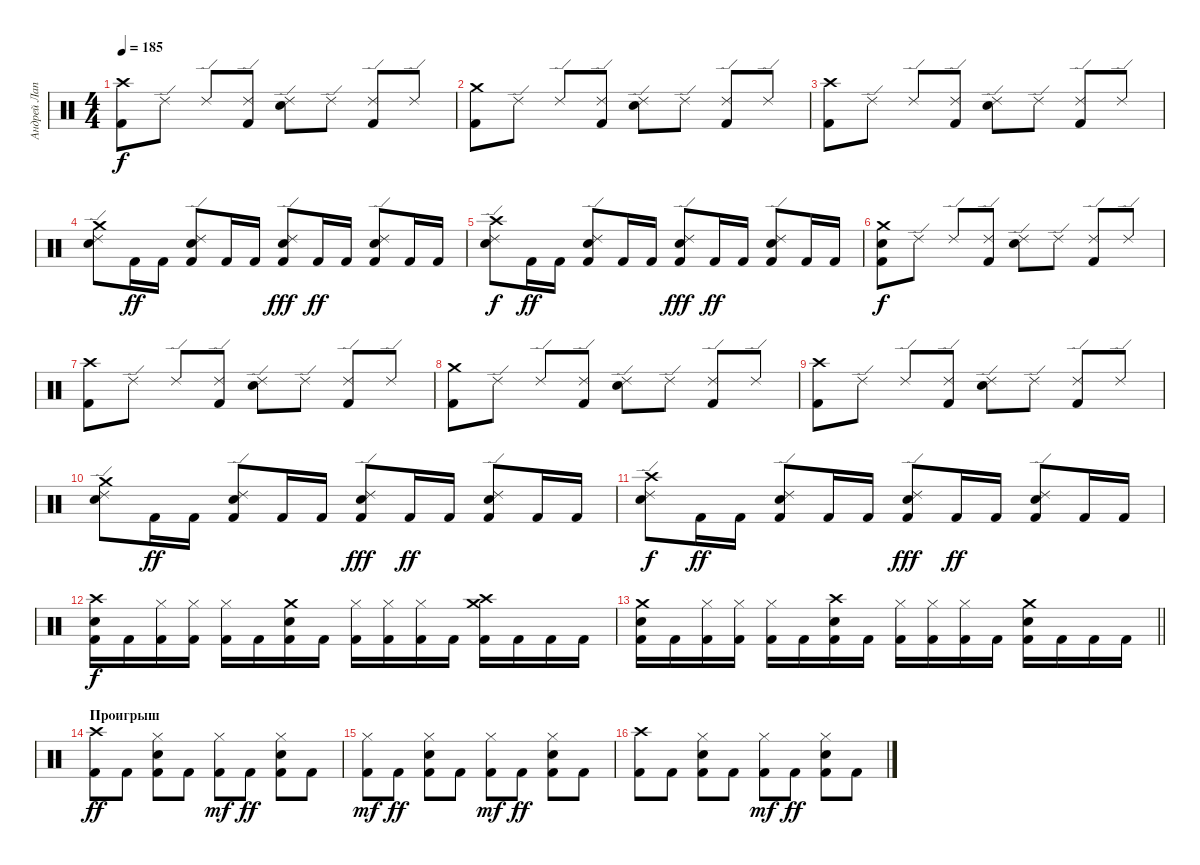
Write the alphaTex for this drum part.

\track ("Андрей Лаптев" "Андрей Лап") {instrument percussion}
\staff {score}
\articulation defaults
\ts (4 4)
\tempo 185
\clef neutral
\ks c
("Kick (hit) 2" "Crash high (hit)").8{dy f} "Ride (edge) 2".8 "Ride (edge) 2".8 ("Ride (edge) 2" "Kick (hit) 2").8 ("Ride (edge) 2" "Electric Snare (hit)").8 "Ride (edge) 2".8 ("Ride (edge) 2" "Kick (hit) 2").8 "Ride (edge) 2".8 |
("Crash medium (hit)" "Kick (hit) 2").8 "Ride (edge) 2".8 "Ride (edge) 2".8 ("Ride (edge) 2" "Kick (hit) 2").8 ("Ride (edge) 2" "Electric Snare (hit)").8 "Ride (edge) 2".8 ("Ride (edge) 2" "Kick (hit) 2").8 "Ride (edge) 2".8 |
("Kick (hit) 2" "Crash high (hit)").8 "Ride (edge) 2".8 "Ride (edge) 2".8 ("Ride (edge) 2" "Kick (hit) 2").8 ("Ride (edge) 2" "Electric Snare (hit)").8 "Ride (edge) 2".8 ("Ride (edge) 2" "Kick (hit) 2").8 "Ride (edge) 2".8 |
("Ride (edge) 2" "Crash medium (hit)" "Electric Snare (hit)").8 "Kick (hit) 2".16{dy ff} "Kick (hit) 2".16 ("Kick (hit) 2" "Electric Snare (hit)" "Ride (edge) 2").8 "Kick (hit) 2".16 "Kick (hit) 2".16 ("Kick (hit) 2" "Ride (edge) 2" "Electric Snare (hit)").8{dy fff} "Kick (hit) 2".16{dy ff} "Kick (hit) 2".16 ("Ride (edge) 2" "Electric Snare (hit)" "Kick (hit) 2").8 "Kick (hit) 2".16 "Kick (hit) 2".16 |
("Ride (edge) 2" "Crash high (hit)" "Electric Snare (hit)").8{dy f} "Kick (hit) 2".16{dy ff} "Kick (hit) 2".16 ("Kick (hit) 2" "Electric Snare (hit)" "Ride (edge) 2").8 "Kick (hit) 2".16 "Kick (hit) 2".16 ("Kick (hit) 2" "Ride (edge) 2" "Electric Snare (hit)").8{dy fff} "Kick (hit) 2".16{dy ff} "Kick (hit) 2".16 ("Ride (edge) 2" "Electric Snare (hit)" "Kick (hit) 2").8 "Kick (hit) 2".16 "Kick (hit) 2".16 |
("Electric Snare (hit)" "Crash medium (hit)" "Kick (hit) 2").8{dy f} "Ride (edge) 2".8 "Ride (edge) 2".8 ("Ride (edge) 2" "Kick (hit) 2").8 ("Ride (edge) 2" "Electric Snare (hit)").8 "Ride (edge) 2".8 ("Ride (edge) 2" "Kick (hit) 2").8 "Ride (edge) 2".8 |
("Kick (hit) 2" "Crash high (hit)").8 "Ride (edge) 2".8 "Ride (edge) 2".8 ("Ride (edge) 2" "Kick (hit) 2").8 ("Ride (edge) 2" "Electric Snare (hit)").8 "Ride (edge) 2".8 ("Ride (edge) 2" "Kick (hit) 2").8 "Ride (edge) 2".8 |
("Crash medium (hit)" "Kick (hit) 2").8 "Ride (edge) 2".8 "Ride (edge) 2".8 ("Ride (edge) 2" "Kick (hit) 2").8 ("Ride (edge) 2" "Electric Snare (hit)").8 "Ride (edge) 2".8 ("Ride (edge) 2" "Kick (hit) 2").8 "Ride (edge) 2".8 |
("Kick (hit) 2" "Crash high (hit)").8 "Ride (edge) 2".8 "Ride (edge) 2".8 ("Ride (edge) 2" "Kick (hit) 2").8 ("Ride (edge) 2" "Electric Snare (hit)").8 "Ride (edge) 2".8 ("Ride (edge) 2" "Kick (hit) 2").8 "Ride (edge) 2".8 |
("Ride (edge) 2" "Crash medium (hit)" "Electric Snare (hit)").8 "Kick (hit) 2".16{dy ff} "Kick (hit) 2".16 ("Kick (hit) 2" "Electric Snare (hit)" "Ride (edge) 2").8 "Kick (hit) 2".16 "Kick (hit) 2".16 ("Kick (hit) 2" "Ride (edge) 2" "Electric Snare (hit)").8{dy fff} "Kick (hit) 2".16{dy ff} "Kick (hit) 2".16 ("Ride (edge) 2" "Electric Snare (hit)" "Kick (hit) 2").8 "Kick (hit) 2".16 "Kick (hit) 2".16 |
("Ride (edge) 2" "Crash high (hit)" "Electric Snare (hit)").8{dy f} "Kick (hit) 2".16{dy ff} "Kick (hit) 2".16 ("Kick (hit) 2" "Electric Snare (hit)" "Ride (edge) 2").8 "Kick (hit) 2".16 "Kick (hit) 2".16 ("Kick (hit) 2" "Ride (edge) 2" "Electric Snare (hit)").8{dy fff} "Kick (hit) 2".16{dy ff} "Kick (hit) 2".16 ("Ride (edge) 2" "Electric Snare (hit)" "Kick (hit) 2").8 "Kick (hit) 2".16 "Kick (hit) 2".16 |
("Kick (hit) 2" "Crash high (hit)" "Electric Snare (hit)").16{dy f} "Kick (hit) 2".16 ("Kick (hit) 2" "Hi-Hat (closed)").16 ("Kick (hit) 2" "Hi-Hat (closed)").16 ("Kick (hit) 2" "Hi-Hat (closed)").16 "Kick (hit) 2".16 ("Kick (hit) 2" "Crash medium (hit)" "Electric Snare (hit)").16 "Kick (hit) 2".16 ("Kick (hit) 2" "Hi-Hat (closed)").16 ("Kick (hit) 2" "Hi-Hat (closed)").16 ("Kick (hit) 2" "Hi-Hat (closed)").16 "Kick (hit) 2".16 ("Kick (hit) 2" "Crash high (hit)" "Crash medium (hit)").16 "Kick (hit) 2".16 "Kick (hit) 2".16 "Kick (hit) 2".16 |
\barLineRight lightlight
("Kick (hit) 2" "Crash medium (hit)" "Electric Snare (hit)").16 "Kick (hit) 2".16 ("Kick (hit) 2" "Hi-Hat (closed)").16 ("Kick (hit) 2" "Hi-Hat (closed)").16 ("Kick (hit) 2" "Hi-Hat (closed)").16 "Kick (hit) 2".16 ("Kick (hit) 2" "Crash high (hit)" "Electric Snare (hit)").16 "Kick (hit) 2".16 ("Kick (hit) 2" "Hi-Hat (closed)").16 ("Kick (hit) 2" "Hi-Hat (closed)").16 ("Kick (hit) 2" "Hi-Hat (closed)").16 "Kick (hit) 2".16 ("Kick (hit) 2" "Electric Snare (hit)" "Crash medium (hit)").16 "Kick (hit) 2".16 "Kick (hit) 2".16 "Kick (hit) 2".16 |
\section ("" "Проигрыш")
("Crash high (hit)" "Kick (hit) 2").8{dy ff} "Kick (hit) 2".8 ("Hi-Hat (closed)" "Electric Snare (hit)" "Kick (hit) 2").8 "Kick (hit) 2".8 ("Kick (hit) 2" "Hi-Hat (closed)").8{dy mf} "Kick (hit) 2".8{dy ff} ("Electric Snare (hit)" "Hi-Hat (closed)" "Kick (hit) 2").8 "Kick (hit) 2".8 |
("Kick (hit) 2" "Hi-Hat (closed)").8{dy mf} "Kick (hit) 2".8{dy ff} ("Electric Snare (hit)" "Hi-Hat (closed)" "Kick (hit) 2").8 "Kick (hit) 2".8 ("Kick (hit) 2" "Hi-Hat (closed)").8{dy mf} "Kick (hit) 2".8{dy ff} ("Hi-Hat (closed)" "Electric Snare (hit)" "Kick (hit) 2").8 "Kick (hit) 2".8 |
("Crash high (hit)" "Kick (hit) 2").8 "Kick (hit) 2".8 ("Hi-Hat (closed)" "Electric Snare (hit)" "Kick (hit) 2").8 "Kick (hit) 2".8 ("Kick (hit) 2" "Hi-Hat (closed)").8{dy mf} "Kick (hit) 2".8{dy ff} ("Electric Snare (hit)" "Hi-Hat (closed)" "Kick (hit) 2").8 "Kick (hit) 2".8
